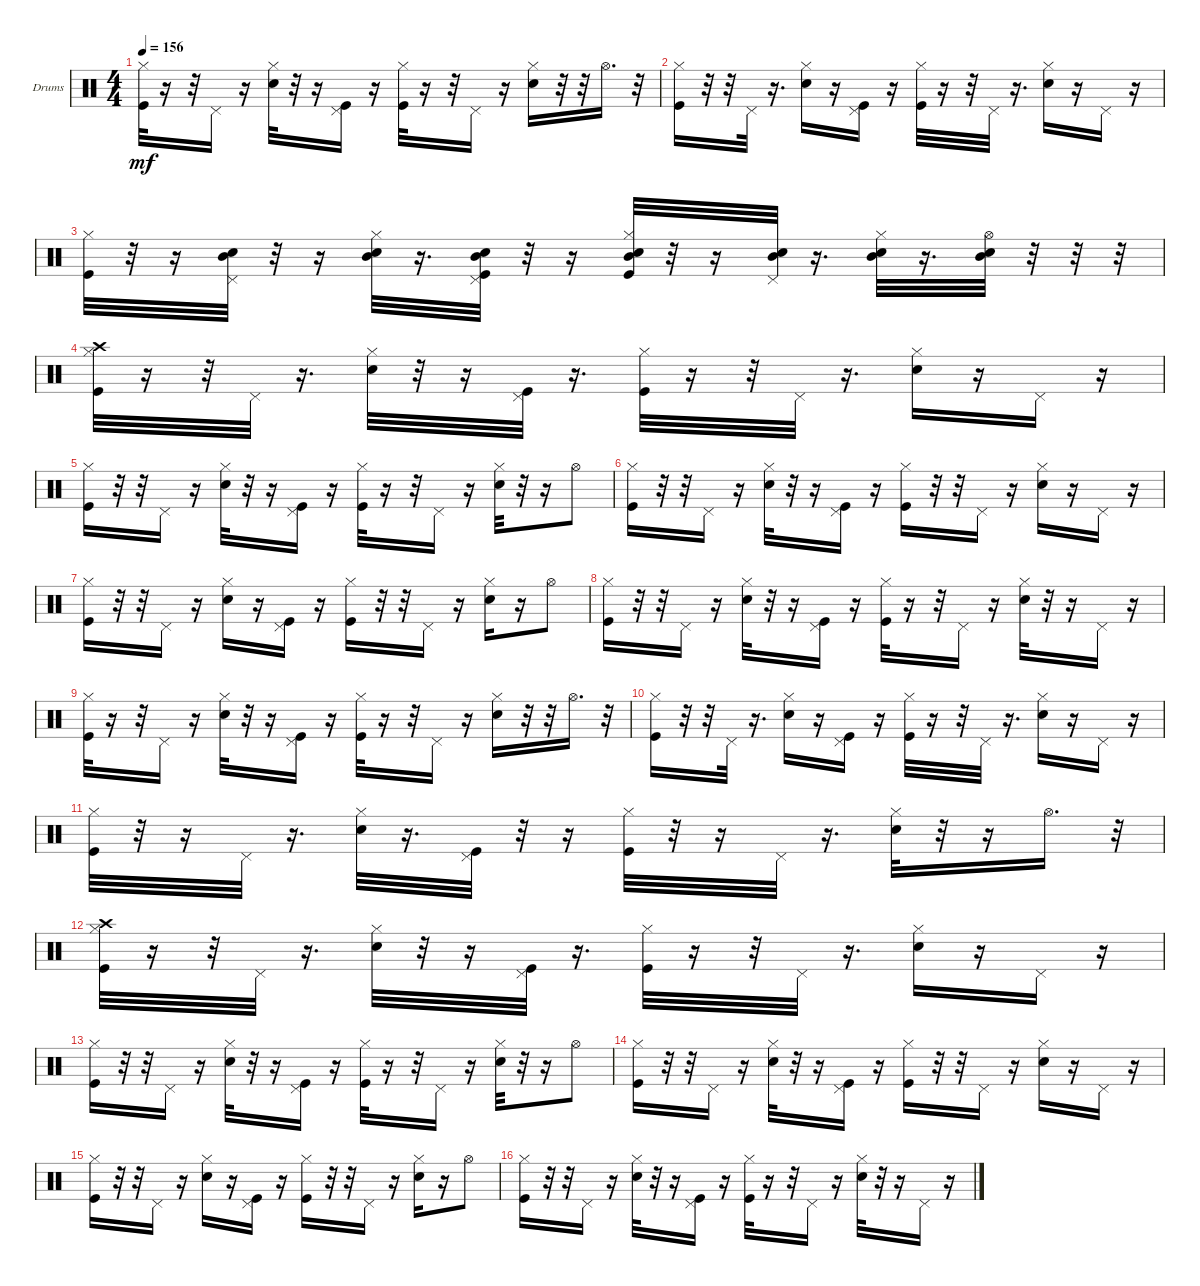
\defaultSystemsLayout 4
\bracketExtendMode groupsimilarinstruments
\firstSystemTrackNameOrientation horizontal
\otherSystemsTrackNameOrientation horizontal
\track ("Drumkit" "Drums") {instrument percussion}
\staff {score}
\articulation defaults
\ts (4 4)
\tempo 156
\clef neutral
\ks c
("Kick (hit)" "Hi-Hat (closed)").32{dy mf} r.16 r.32 "Pedal Hi-Hat (hit)".16 r.16 ("Snare (hit) 2" "Hi-Hat (closed)").32 r.32 r.16 ("Kick (hit)" "Pedal Hi-Hat (hit)").16 r.16 ("Kick (hit)" "Hi-Hat (closed)").32 r.16 r.32 "Pedal Hi-Hat (hit)".16 r.16 ("Snare (hit) 2" "Hi-Hat (closed)").16 r.32 r.32 "Hi-Hat (open)".16{d} r.32 |
("Kick (hit)" "Hi-Hat (closed)").16 r.32 r.32 "Pedal Hi-Hat (hit)".32 r.16{d} ("Snare (hit) 2" "Hi-Hat (closed)").16 r.16 ("Kick (hit)" "Pedal Hi-Hat (hit)").16 r.16 ("Kick (hit)" "Hi-Hat (closed)").32 r.16 r.32 "Pedal Hi-Hat (hit)".32 r.16{d} ("Snare (hit) 2" "Hi-Hat (closed)").16 r.16 "Pedal Hi-Hat (hit)".16 r.16 |
("Kick (hit)" "Hi-Hat (closed)").32 r.32 r.16 ("Pedal Hi-Hat (hit)" "Snare (hit) 2" "Mid Tom (hit)").32 r.32 r.16 ("Hi-Hat (closed)" "Snare (hit) 2" "Mid Tom (hit)").32 r.16{d} ("Kick (hit)" "Pedal Hi-Hat (hit)" "Snare (hit) 2" "Mid Tom (hit)").32 r.32 r.16 ("Kick (hit)" "Hi-Hat (closed)" "Snare (hit) 2" "Mid Tom (hit)").32 r.32 r.16 ("Pedal Hi-Hat (hit)" "Snare (hit) 2" "Mid Tom (hit)").32 r.16{d} ("Hi-Hat (closed)" "Snare (hit) 2" "Mid Tom (hit)").32 r.16{d} ("Hi-Hat (open)" "Snare (hit) 2" "Mid Tom (hit)").32 r.32 r.32 r.32 |
("Kick (hit)" "Crash high (hit)" "Hi-Hat (closed)").32 r.16 r.32 "Pedal Hi-Hat (hit)".32 r.16{d} ("Snare (hit) 2" "Hi-Hat (closed)").32 r.32 r.16 ("Kick (hit)" "Pedal Hi-Hat (hit)").32 r.16{d} ("Kick (hit)" "Hi-Hat (closed)").32 r.16 r.32 "Pedal Hi-Hat (hit)".32 r.16{d} ("Snare (hit) 2" "Hi-Hat (closed)").16 r.16 "Pedal Hi-Hat (hit)".16 r.16 |
("Kick (hit)" "Hi-Hat (closed)").16 r.32 r.32 "Pedal Hi-Hat (hit)".16 r.16 ("Snare (hit) 2" "Hi-Hat (closed)").32 r.32 r.16 ("Kick (hit)" "Pedal Hi-Hat (hit)").16 r.16 ("Kick (hit)" "Hi-Hat (closed)").32 r.16 r.32 "Pedal Hi-Hat (hit)".16 r.16 ("Snare (hit) 2" "Hi-Hat (closed)").32 r.32 r.16 "Hi-Hat (open)".8 |
("Kick (hit)" "Hi-Hat (closed)").16 r.32 r.32 "Pedal Hi-Hat (hit)".16 r.16 ("Snare (hit) 2" "Hi-Hat (closed)").32 r.32 r.16 ("Kick (hit)" "Pedal Hi-Hat (hit)").16 r.16 ("Kick (hit)" "Hi-Hat (closed)").16 r.32 r.32 "Pedal Hi-Hat (hit)".16 r.16 ("Snare (hit) 2" "Hi-Hat (closed)").16 r.16 "Pedal Hi-Hat (hit)".16 r.16 |
("Kick (hit)" "Hi-Hat (closed)").16 r.32 r.32 "Pedal Hi-Hat (hit)".16 r.16 ("Snare (hit) 2" "Hi-Hat (closed)").16 r.16 ("Kick (hit)" "Pedal Hi-Hat (hit)").16 r.16 ("Kick (hit)" "Hi-Hat (closed)").16 r.32 r.32 "Pedal Hi-Hat (hit)".16 r.16 ("Snare (hit) 2" "Hi-Hat (closed)").16 r.16 "Hi-Hat (open)".8 |
("Kick (hit)" "Hi-Hat (closed)").16 r.32 r.32 "Pedal Hi-Hat (hit)".16 r.16 ("Snare (hit) 2" "Hi-Hat (closed)").32 r.32 r.16 ("Kick (hit)" "Pedal Hi-Hat (hit)").16 r.16 ("Kick (hit)" "Hi-Hat (closed)").32 r.16 r.32 "Pedal Hi-Hat (hit)".16 r.16 ("Snare (hit) 2" "Hi-Hat (closed)").32 r.32 r.16 "Pedal Hi-Hat (hit)".16 r.16 |
("Kick (hit)" "Hi-Hat (closed)").32 r.16 r.32 "Pedal Hi-Hat (hit)".16 r.16 ("Snare (hit) 2" "Hi-Hat (closed)").32 r.32 r.16 ("Kick (hit)" "Pedal Hi-Hat (hit)").16 r.16 ("Kick (hit)" "Hi-Hat (closed)").32 r.16 r.32 "Pedal Hi-Hat (hit)".16 r.16 ("Snare (hit) 2" "Hi-Hat (closed)").16 r.32 r.32 "Hi-Hat (open)".16{d} r.32 |
("Kick (hit)" "Hi-Hat (closed)").16 r.32 r.32 "Pedal Hi-Hat (hit)".32 r.16{d} ("Snare (hit) 2" "Hi-Hat (closed)").16 r.16 ("Kick (hit)" "Pedal Hi-Hat (hit)").16 r.16 ("Kick (hit)" "Hi-Hat (closed)").32 r.16 r.32 "Pedal Hi-Hat (hit)".32 r.16{d} ("Snare (hit) 2" "Hi-Hat (closed)").16 r.16 "Pedal Hi-Hat (hit)".16 r.16 |
("Kick (hit)" "Hi-Hat (closed)").32 r.32 r.16 "Pedal Hi-Hat (hit)".32 r.16{d} ("Snare (hit) 2" "Hi-Hat (closed)").32 r.16{d} ("Kick (hit)" "Pedal Hi-Hat (hit)").32 r.32 r.16 ("Kick (hit)" "Hi-Hat (closed)").32 r.32 r.16 "Pedal Hi-Hat (hit)".32 r.16{d} ("Snare (hit) 2" "Hi-Hat (closed)").32 r.32 r.16 "Hi-Hat (open)".16{d} r.32 |
("Kick (hit)" "Crash high (hit)" "Hi-Hat (closed)").32 r.16 r.32 "Pedal Hi-Hat (hit)".32 r.16{d} ("Snare (hit) 2" "Hi-Hat (closed)").32 r.32 r.16 ("Kick (hit)" "Pedal Hi-Hat (hit)").32 r.16{d} ("Kick (hit)" "Hi-Hat (closed)").32 r.16 r.32 "Pedal Hi-Hat (hit)".32 r.16{d} ("Snare (hit) 2" "Hi-Hat (closed)").16 r.16 "Pedal Hi-Hat (hit)".16 r.16 |
("Kick (hit)" "Hi-Hat (closed)").16 r.32 r.32 "Pedal Hi-Hat (hit)".16 r.16 ("Snare (hit) 2" "Hi-Hat (closed)").32 r.32 r.16 ("Kick (hit)" "Pedal Hi-Hat (hit)").16 r.16 ("Kick (hit)" "Hi-Hat (closed)").32 r.16 r.32 "Pedal Hi-Hat (hit)".16 r.16 ("Snare (hit) 2" "Hi-Hat (closed)").32 r.32 r.16 "Hi-Hat (open)".8 |
("Kick (hit)" "Hi-Hat (closed)").16 r.32 r.32 "Pedal Hi-Hat (hit)".16 r.16 ("Snare (hit) 2" "Hi-Hat (closed)").32 r.32 r.16 ("Kick (hit)" "Pedal Hi-Hat (hit)").16 r.16 ("Kick (hit)" "Hi-Hat (closed)").16 r.32 r.32 "Pedal Hi-Hat (hit)".16 r.16 ("Snare (hit) 2" "Hi-Hat (closed)").16 r.16 "Pedal Hi-Hat (hit)".16 r.16 |
("Kick (hit)" "Hi-Hat (closed)").16 r.32 r.32 "Pedal Hi-Hat (hit)".16 r.16 ("Snare (hit) 2" "Hi-Hat (closed)").16 r.16 ("Kick (hit)" "Pedal Hi-Hat (hit)").16 r.16 ("Kick (hit)" "Hi-Hat (closed)").16 r.32 r.32 "Pedal Hi-Hat (hit)".16 r.16 ("Snare (hit) 2" "Hi-Hat (closed)").16 r.16 "Hi-Hat (open)".8 |
("Kick (hit)" "Hi-Hat (closed)").16 r.32 r.32 "Pedal Hi-Hat (hit)".16 r.16 ("Snare (hit) 2" "Hi-Hat (closed)").32 r.32 r.16 ("Kick (hit)" "Pedal Hi-Hat (hit)").16 r.16 ("Kick (hit)" "Hi-Hat (closed)").32 r.16 r.32 "Pedal Hi-Hat (hit)".16 r.16 ("Snare (hit) 2" "Hi-Hat (closed)").32 r.32 r.16 "Pedal Hi-Hat (hit)".16 r.16
